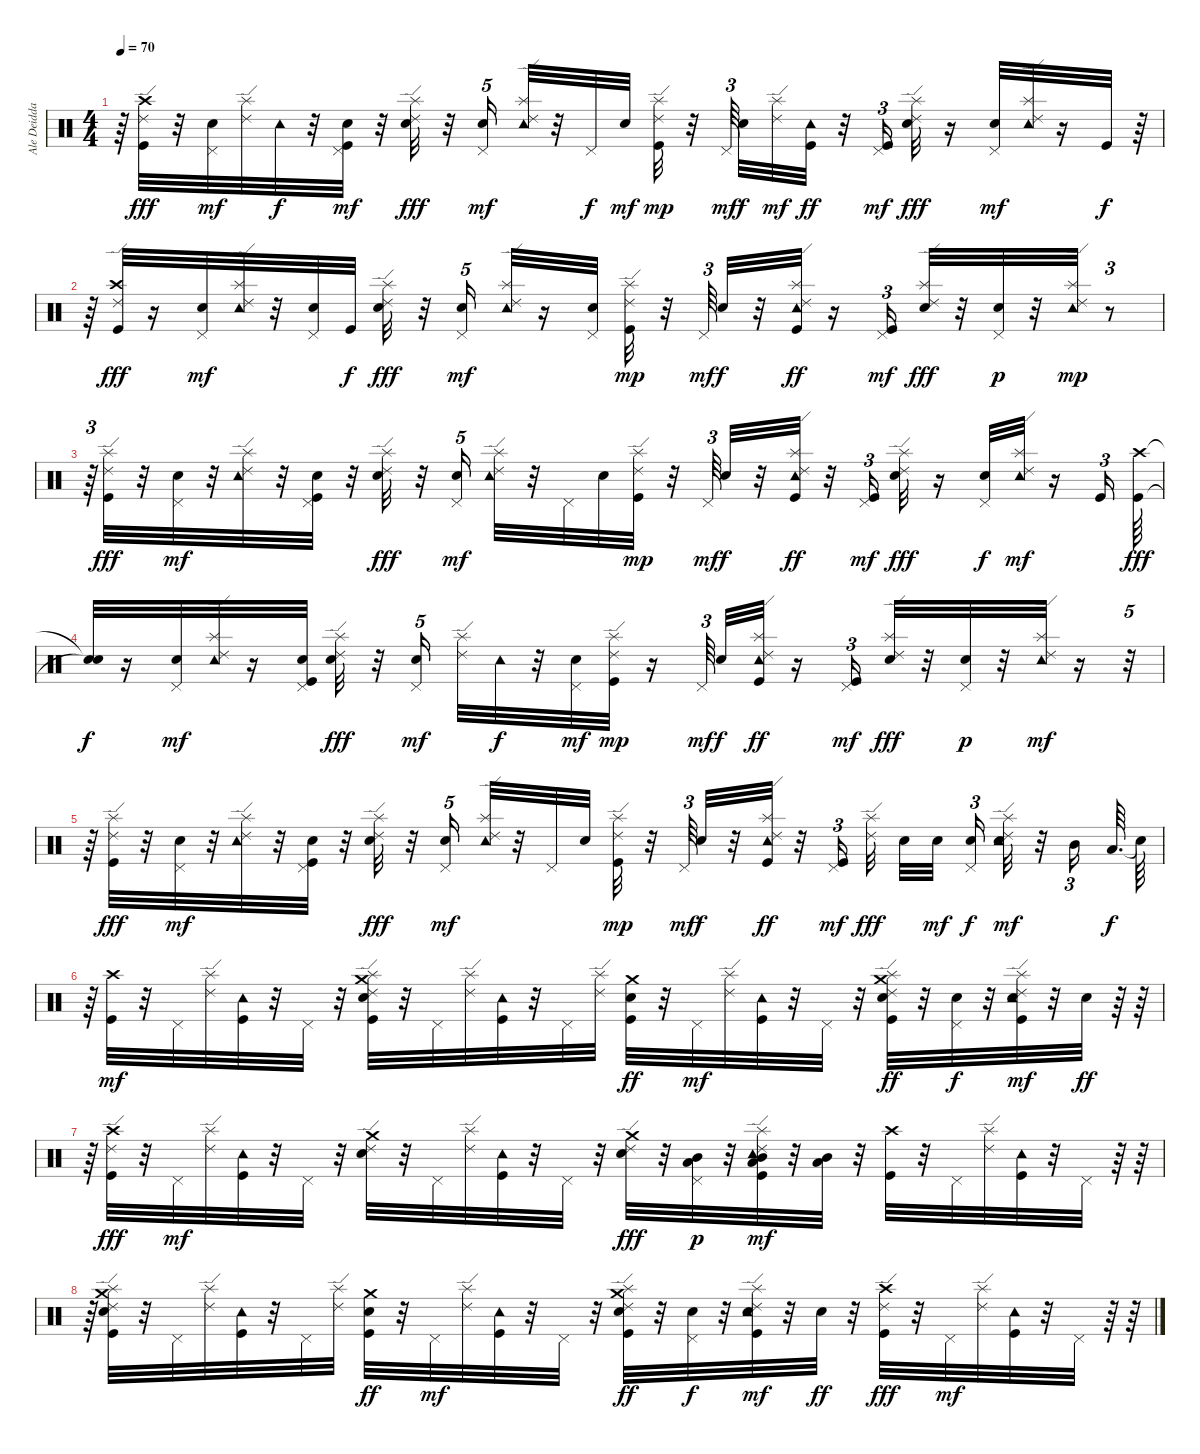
\track ("Ale Deidda" "Ale Deidda") {instrument percussion}
\staff {score}
\articulation defaults
\ts (4 4)
\tempo 70
\clef neutral
\ks c
r.64{dy f} ("Kick (hit)" "Crash high (hit)" "Ride (edge) 2").32{dy fff} r.32 ("Snare (hit) 2" "Pedal Hi-Hat (hit)").32{dy mf} ("Splash (hit)" "Ride (edge) 2").32 "Tambourine (hit)".32{dy f} r.32 ("Snare (hit) 2" "Pedal Hi-Hat (hit)" "Kick (hit)").32{dy mf} r.32 ("Splash (hit)" "Ride (edge) 2" "Electric Snare (hit)").32{dy fff} r.32 ("Snare (hit) 2" "Pedal Hi-Hat (hit)").16{tu (5 4) dy mf} ("Splash (hit)" "Ride (edge) 2" "Tambourine (hit)").32 r.32 "Pedal Hi-Hat (hit)".32{dy f} "Snare (hit) 2".32{dy mf} ("Splash (hit)" "Ride (edge) 2" "Kick (hit)").32{dy mp} r.32 "Pedal Hi-Hat (hit)".64{tu (3 2) dy mf beam splitsecondary} "Snare (hit) 2".32{dy f} ("Splash (hit)" "Ride (edge) 2").32{dy mf} ("Tambourine (hit)" "Kick (hit)").32{dy ff} r.32 ("Pedal Hi-Hat (hit)" "Kick (hit)").16{tu (3 2) dy mf} ("Electric Snare (hit)" "Splash (hit)" "Ride (edge) 2").32{dy fff} r.16 ("Electric Snare (hit)" "Pedal Hi-Hat (hit)").32{dy mf} ("Splash (hit)" "Ride (edge) 2" "Tambourine (hit)").32 r.16 "Kick (hit)".32{dy f} r.64 |
r.64 ("Kick (hit)" "Crash high (hit)" "Ride (edge) 2").32{dy fff} r.16 ("Snare (hit) 2" "Pedal Hi-Hat (hit)").32{dy mf} ("Splash (hit)" "Ride (edge) 2" "Tambourine (hit)").32 r.32 ("Snare (hit) 2" "Pedal Hi-Hat (hit)").32 "Kick (hit)".32{dy f} ("Splash (hit)" "Ride (edge) 2" "Electric Snare (hit)").32{dy fff} r.32 ("Snare (hit) 2" "Pedal Hi-Hat (hit)").16{tu (5 4) dy mf} ("Splash (hit)" "Ride (edge) 2" "Tambourine (hit)").32 r.16 ("Pedal Hi-Hat (hit)" "Snare (hit) 2").32 ("Splash (hit)" "Ride (edge) 2" "Kick (hit)").32{dy mp} r.32 "Pedal Hi-Hat (hit)".64{tu (3 2) dy mf} "Snare (hit) 2".32{dy f} r.32 ("Splash (hit)" "Ride (edge) 2" "Tambourine (hit)" "Kick (hit)").32{dy ff} r.16 ("Pedal Hi-Hat (hit)" "Kick (hit)").16{tu (3 2) dy mf} ("Electric Snare (hit)" "Splash (hit)" "Ride (edge) 2").32{dy fff} r.32 ("Snare (hit) 2" "Pedal Hi-Hat (hit)").32{dy p} r.32 ("Splash (hit)" "Ride (edge) 2" "Tambourine (hit)").32{dy mp} r.8{tu (3 2)} |
r.64{tu (3 2)} ("Kick (hit)" "Splash (hit)" "Ride (edge) 2").32{dy fff} r.32 ("Snare (hit) 2" "Pedal Hi-Hat (hit)").32{dy mf} r.32 ("Splash (hit)" "Ride (edge) 2" "Tambourine (hit)").32 r.32 ("Snare (hit) 2" "Pedal Hi-Hat (hit)" "Kick (hit)").32 r.32 ("Splash (hit)" "Ride (edge) 2" "Electric Snare (hit)").32{dy fff} r.32 ("Snare (hit) 2" "Pedal Hi-Hat (hit)").16{tu (5 4) dy mf} ("Splash (hit)" "Ride (edge) 2" "Tambourine (hit)").32 r.32 "Pedal Hi-Hat (hit)".32 "Snare (hit) 2".32 ("Splash (hit)" "Ride (edge) 2" "Kick (hit)").32{dy mp} r.32 "Pedal Hi-Hat (hit)".64{tu (3 2) dy mf} "Snare (hit) 2".32{dy f} r.32 ("Splash (hit)" "Ride (edge) 2" "Tambourine (hit)" "Kick (hit)").32{dy ff} r.32 ("Pedal Hi-Hat (hit)" "Kick (hit)").16{tu (3 2) dy mf} ("Electric Snare (hit)" "Splash (hit)" "Ride (edge) 2").32{dy fff} r.16 ("Pedal Hi-Hat (hit)" "Electric Snare (hit)").32{dy f} ("Splash (hit)" "Ride (edge) 2" "Tambourine (hit)").32{dy mf} r.16 "Kick (hit)".16{tu (3 2)} ("Kick (hit)" "Crash high (hit)").64{dy fff} |
("Snare (hit)"{t} "Snare (hit)"{t}).32{dy f} r.16 ("Snare (hit) 2" "Pedal Hi-Hat (hit)").32{dy mf} ("Splash (hit)" "Ride (edge) 2" "Tambourine (hit)").32 r.16 ("Snare (hit) 2" "Pedal Hi-Hat (hit)" "Kick (hit)").32 ("Splash (hit)" "Ride (edge) 2" "Electric Snare (hit)").32{dy fff} r.32 ("Snare (hit) 2" "Pedal Hi-Hat (hit)").16{tu (5 4) dy mf beam splitsecondary} ("Splash (hit)" "Ride (edge) 2").32 "Tambourine (hit)".32{dy f} r.32 ("Pedal Hi-Hat (hit)" "Snare (hit) 2").32{dy mf} ("Splash (hit)" "Ride (edge) 2" "Kick (hit)").32{dy mp} r.16 "Pedal Hi-Hat (hit)".64{tu (3 2) dy mf beam splitsecondary} "Snare (hit) 2".32{dy f} ("Splash (hit)" "Ride (edge) 2" "Tambourine (hit)" "Kick (hit)").32{dy ff} r.16 ("Pedal Hi-Hat (hit)" "Kick (hit)").16{tu (3 2) dy mf} ("Electric Snare (hit)" "Splash (hit)" "Ride (edge) 2").32{dy fff} r.32 ("Snare (hit) 2" "Pedal Hi-Hat (hit)").32{dy p} r.32 ("Splash (hit)" "Ride (edge) 2" "Tambourine (hit)").32{dy mf} r.16 r.32{tu (5 4)} |
r.64 ("Kick (hit)" "Splash (hit)" "Ride (edge) 2").32{dy fff} r.32 ("Snare (hit) 2" "Pedal Hi-Hat (hit)").32{dy mf} r.32 ("Splash (hit)" "Ride (edge) 2" "Tambourine (hit)").32 r.32 ("Snare (hit) 2" "Pedal Hi-Hat (hit)" "Kick (hit)").32 r.32 ("Splash (hit)" "Ride (edge) 2" "Electric Snare (hit)").32{dy fff} r.32 ("Snare (hit) 2" "Pedal Hi-Hat (hit)").16{tu (5 4) dy mf} ("Splash (hit)" "Ride (edge) 2" "Tambourine (hit)").32 r.32 "Pedal Hi-Hat (hit)".32 "Snare (hit) 2".32 ("Splash (hit)" "Ride (edge) 2" "Kick (hit)").32{dy mp} r.32 "Pedal Hi-Hat (hit)".64{tu (3 2) dy mf} "Snare (hit) 2".32{dy f} r.32 ("Splash (hit)" "Ride (edge) 2" "Tambourine (hit)" "Kick (hit)").32{dy ff} r.32 ("Pedal Hi-Hat (hit)" "Kick (hit)").16{tu (3 2) dy mf} ("Splash (hit)" "Ride (edge) 2").32{dy fff} "Electric Snare (hit)".32 "Electric Snare (hit)".32{dy mf beam splitsecondary} ("Pedal Hi-Hat (hit)" "Electric Snare (hit)").16{tu (3 2) dy f} ("Electric Snare (hit)" "Splash (hit)" "Ride (edge) 2" "Tambourine (hit)").32{dy mf} r.32 "Mid Tom (hit)".16{tu (3 2)} "Low Tom (hit)".64{d dy f} "Snare (hit)"{t}.64 |
r.64 ("Kick (hit)" "Crash high (hit)").32{dy mf} r.32 "Pedal Hi-Hat (hit)".32 ("Splash (hit)" "Ride (edge) 2").32 ("Kick (hit)" "Tambourine (hit)").32 r.32 "Pedal Hi-Hat (hit)".32 r.32 ("Splash (hit)" "Ride (edge) 2" "Kick (hit)" "Electric Snare (hit)" "Crash medium (hit)").32 r.32 "Pedal Hi-Hat (hit)".32 ("Splash (hit)" "Ride (edge) 2").32 ("Kick (hit)" "Tambourine (hit)").32 r.32 "Pedal Hi-Hat (hit)".32 ("Splash (hit)" "Ride (edge) 2").32 ("Kick (hit)" "Electric Snare (hit)" "Crash medium (hit)").32{dy ff} r.32 "Pedal Hi-Hat (hit)".32{dy mf} ("Splash (hit)" "Ride (edge) 2").32 ("Tambourine (hit)" "Kick (hit)").32 r.32 "Pedal Hi-Hat (hit)".32 r.32 ("Splash (hit)" "Ride (edge) 2" "Kick (hit)" "Electric Snare (hit)" "Crash medium (hit)").32{dy ff} r.32 ("Electric Snare (hit)" "Pedal Hi-Hat (hit)").32{dy f} r.32 ("Kick (hit)" "Electric Snare (hit)" "Splash (hit)" "Ride (edge) 2" "Tambourine (hit)").32{dy mf} r.32 "Electric Snare (hit)".32{dy ff} r.64 r.64 |
r.64 ("Kick (hit)" "Crash high (hit)" "Ride (edge) 2").32{dy fff} r.32 "Pedal Hi-Hat (hit)".32{dy mf} ("Splash (hit)" "Ride (edge) 2").32 ("Kick (hit)" "Tambourine (hit)").32 r.32 "Pedal Hi-Hat (hit)".32 r.32 ("Ride (edge) 2" "Electric Snare (hit)" "Crash medium (hit)").32 r.32 "Pedal Hi-Hat (hit)".32 ("Splash (hit)" "Ride (edge) 2").32 ("Kick (hit)" "Tambourine (hit)").32 r.32 "Pedal Hi-Hat (hit)".32 r.32 ("Electric Snare (hit)" "Crash medium (hit)" "Ride (edge) 2").32{dy fff} r.32 ("Low Floor Tom (hit)" "Pedal Hi-Hat (hit)" "Mid Tom (hit)").32{dy p} r.32 ("Kick (hit)" "Low Floor Tom (hit)" "Mid Tom (hit)" "Splash (hit)" "Ride (edge) 2" "Tambourine (hit)").32{dy mf} r.32 ("Low Floor Tom (hit)" "Mid Tom (hit)").32 r.32 ("Kick (hit)" "Crash high (hit)").32 r.32 "Pedal Hi-Hat (hit)".32 ("Splash (hit)" "Ride (edge) 2").32 ("Kick (hit)" "Tambourine (hit)").32 r.32 "Pedal Hi-Hat (hit)".32 r.64 r.64 |
r.64 ("Splash (hit)" "Ride (edge) 2" "Kick (hit)" "Electric Snare (hit)" "Crash medium (hit)").32 r.32 "Pedal Hi-Hat (hit)".32 ("Splash (hit)" "Ride (edge) 2").32 ("Kick (hit)" "Tambourine (hit)").32 r.32 "Pedal Hi-Hat (hit)".32 ("Splash (hit)" "Ride (edge) 2").32 ("Kick (hit)" "Electric Snare (hit)" "Crash medium (hit)").32{dy ff} r.32 "Pedal Hi-Hat (hit)".32{dy mf} ("Splash (hit)" "Ride (edge) 2").32 ("Tambourine (hit)" "Kick (hit)").32 r.32 "Pedal Hi-Hat (hit)".32 r.32 ("Splash (hit)" "Ride (edge) 2" "Kick (hit)" "Electric Snare (hit)" "Crash medium (hit)").32{dy ff} r.32 ("Electric Snare (hit)" "Pedal Hi-Hat (hit)").32{dy f} r.32 ("Kick (hit)" "Electric Snare (hit)" "Splash (hit)" "Ride (edge) 2" "Tambourine (hit)").32{dy mf} r.32 "Electric Snare (hit)".32{dy ff} r.32 ("Kick (hit)" "Crash high (hit)" "Ride (edge) 2").32{dy fff} r.32 "Pedal Hi-Hat (hit)".32{dy mf} ("Splash (hit)" "Ride (edge) 2").32 ("Kick (hit)" "Tambourine (hit)").32 r.32 "Pedal Hi-Hat (hit)".32 r.64 r.64
